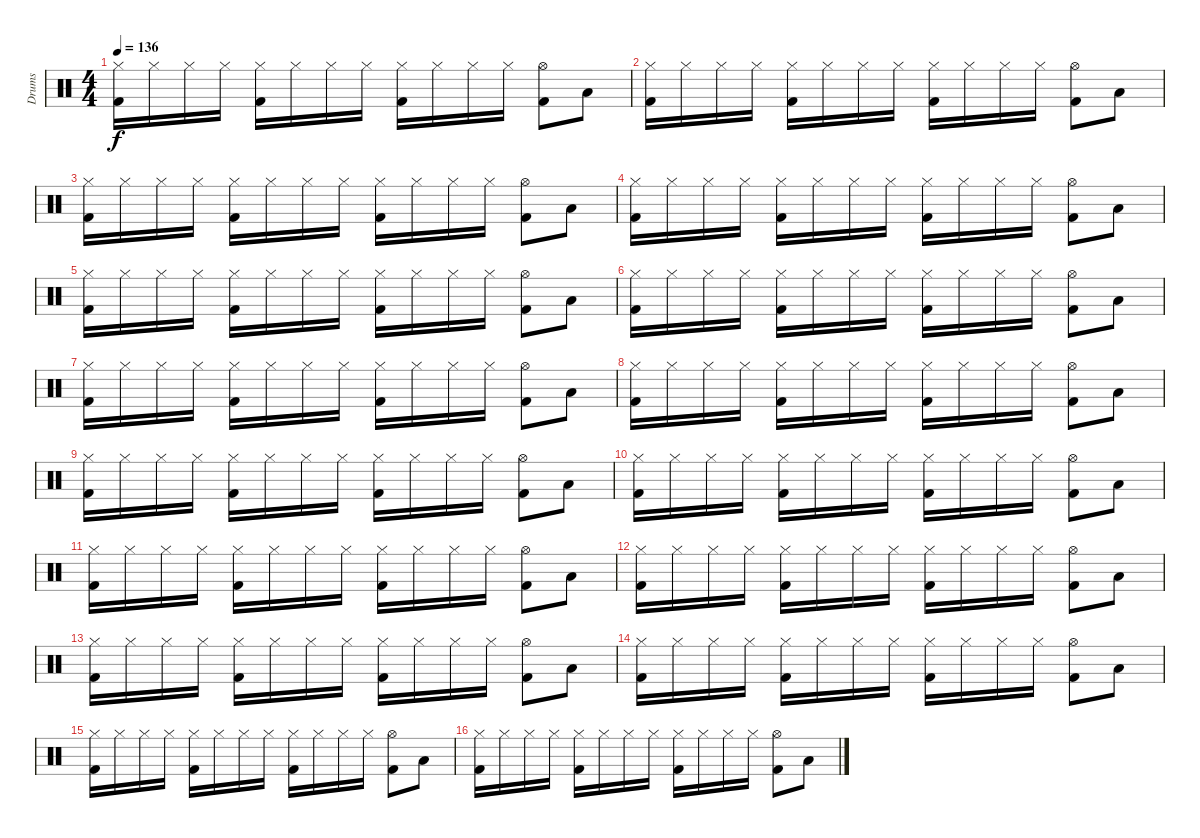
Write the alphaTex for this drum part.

\track ("Drums" "Drums") {instrument percussion}
\staff {score}
\articulation defaults
\ts (4 4)
\tempo 136
\clef neutral
\ks c
("Kick (hit) 2" "Hi-Hat (closed)").16{dy f} "Hi-Hat (closed)".16 "Hi-Hat (closed)".16 "Hi-Hat (closed)".16 ("Kick (hit) 2" "Hi-Hat (closed)").16 "Hi-Hat (closed)".16 "Hi-Hat (closed)".16 "Hi-Hat (closed)".16 ("Kick (hit) 2" "Hi-Hat (closed)").16 "Hi-Hat (closed)".16 "Hi-Hat (closed)".16 "Hi-Hat (closed)".16 ("Kick (hit) 2" "Hi-Hat (open)").8 "Low Tom (hit)".8 |
("Kick (hit) 2" "Hi-Hat (closed)").16 "Hi-Hat (closed)".16 "Hi-Hat (closed)".16 "Hi-Hat (closed)".16 ("Kick (hit) 2" "Hi-Hat (closed)").16 "Hi-Hat (closed)".16 "Hi-Hat (closed)".16 "Hi-Hat (closed)".16 ("Kick (hit) 2" "Hi-Hat (closed)").16 "Hi-Hat (closed)".16 "Hi-Hat (closed)".16 "Hi-Hat (closed)".16 ("Kick (hit) 2" "Hi-Hat (open)").8 "Low Tom (hit)".8 |
("Kick (hit) 2" "Hi-Hat (closed)").16 "Hi-Hat (closed)".16 "Hi-Hat (closed)".16 "Hi-Hat (closed)".16 ("Kick (hit) 2" "Hi-Hat (closed)").16 "Hi-Hat (closed)".16 "Hi-Hat (closed)".16 "Hi-Hat (closed)".16 ("Kick (hit) 2" "Hi-Hat (closed)").16 "Hi-Hat (closed)".16 "Hi-Hat (closed)".16 "Hi-Hat (closed)".16 ("Kick (hit) 2" "Hi-Hat (open)").8 "Low Tom (hit)".8 |
("Kick (hit) 2" "Hi-Hat (closed)").16 "Hi-Hat (closed)".16 "Hi-Hat (closed)".16 "Hi-Hat (closed)".16 ("Kick (hit) 2" "Hi-Hat (closed)").16 "Hi-Hat (closed)".16 "Hi-Hat (closed)".16 "Hi-Hat (closed)".16 ("Kick (hit) 2" "Hi-Hat (closed)").16 "Hi-Hat (closed)".16 "Hi-Hat (closed)".16 "Hi-Hat (closed)".16 ("Kick (hit) 2" "Hi-Hat (open)").8 "Low Tom (hit)".8 |
("Kick (hit) 2" "Hi-Hat (closed)").16 "Hi-Hat (closed)".16 "Hi-Hat (closed)".16 "Hi-Hat (closed)".16 ("Kick (hit) 2" "Hi-Hat (closed)").16 "Hi-Hat (closed)".16 "Hi-Hat (closed)".16 "Hi-Hat (closed)".16 ("Kick (hit) 2" "Hi-Hat (closed)").16 "Hi-Hat (closed)".16 "Hi-Hat (closed)".16 "Hi-Hat (closed)".16 ("Kick (hit) 2" "Hi-Hat (open)").8 "Low Tom (hit)".8 |
("Kick (hit) 2" "Hi-Hat (closed)").16 "Hi-Hat (closed)".16 "Hi-Hat (closed)".16 "Hi-Hat (closed)".16 ("Kick (hit) 2" "Hi-Hat (closed)").16 "Hi-Hat (closed)".16 "Hi-Hat (closed)".16 "Hi-Hat (closed)".16 ("Kick (hit) 2" "Hi-Hat (closed)").16 "Hi-Hat (closed)".16 "Hi-Hat (closed)".16 "Hi-Hat (closed)".16 ("Kick (hit) 2" "Hi-Hat (open)").8 "Low Tom (hit)".8 |
("Kick (hit) 2" "Hi-Hat (closed)").16 "Hi-Hat (closed)".16 "Hi-Hat (closed)".16 "Hi-Hat (closed)".16 ("Kick (hit) 2" "Hi-Hat (closed)").16 "Hi-Hat (closed)".16 "Hi-Hat (closed)".16 "Hi-Hat (closed)".16 ("Kick (hit) 2" "Hi-Hat (closed)").16 "Hi-Hat (closed)".16 "Hi-Hat (closed)".16 "Hi-Hat (closed)".16 ("Kick (hit) 2" "Hi-Hat (open)").8 "Low Tom (hit)".8 |
("Kick (hit) 2" "Hi-Hat (closed)").16 "Hi-Hat (closed)".16 "Hi-Hat (closed)".16 "Hi-Hat (closed)".16 ("Kick (hit) 2" "Hi-Hat (closed)").16 "Hi-Hat (closed)".16 "Hi-Hat (closed)".16 "Hi-Hat (closed)".16 ("Kick (hit) 2" "Hi-Hat (closed)").16 "Hi-Hat (closed)".16 "Hi-Hat (closed)".16 "Hi-Hat (closed)".16 ("Kick (hit) 2" "Hi-Hat (open)").8 "Low Tom (hit)".8 |
("Kick (hit) 2" "Hi-Hat (closed)").16 "Hi-Hat (closed)".16 "Hi-Hat (closed)".16 "Hi-Hat (closed)".16 ("Kick (hit) 2" "Hi-Hat (closed)").16 "Hi-Hat (closed)".16 "Hi-Hat (closed)".16 "Hi-Hat (closed)".16 ("Kick (hit) 2" "Hi-Hat (closed)").16 "Hi-Hat (closed)".16 "Hi-Hat (closed)".16 "Hi-Hat (closed)".16 ("Kick (hit) 2" "Hi-Hat (open)").8 "Low Tom (hit)".8 |
("Kick (hit) 2" "Hi-Hat (closed)").16 "Hi-Hat (closed)".16 "Hi-Hat (closed)".16 "Hi-Hat (closed)".16 ("Kick (hit) 2" "Hi-Hat (closed)").16 "Hi-Hat (closed)".16 "Hi-Hat (closed)".16 "Hi-Hat (closed)".16 ("Kick (hit) 2" "Hi-Hat (closed)").16 "Hi-Hat (closed)".16 "Hi-Hat (closed)".16 "Hi-Hat (closed)".16 ("Kick (hit) 2" "Hi-Hat (open)").8 "Low Tom (hit)".8 |
("Kick (hit) 2" "Hi-Hat (closed)").16 "Hi-Hat (closed)".16 "Hi-Hat (closed)".16 "Hi-Hat (closed)".16 ("Kick (hit) 2" "Hi-Hat (closed)").16 "Hi-Hat (closed)".16 "Hi-Hat (closed)".16 "Hi-Hat (closed)".16 ("Kick (hit) 2" "Hi-Hat (closed)").16 "Hi-Hat (closed)".16 "Hi-Hat (closed)".16 "Hi-Hat (closed)".16 ("Kick (hit) 2" "Hi-Hat (open)").8 "Low Tom (hit)".8 |
("Kick (hit) 2" "Hi-Hat (closed)").16 "Hi-Hat (closed)".16 "Hi-Hat (closed)".16 "Hi-Hat (closed)".16 ("Kick (hit) 2" "Hi-Hat (closed)").16 "Hi-Hat (closed)".16 "Hi-Hat (closed)".16 "Hi-Hat (closed)".16 ("Kick (hit) 2" "Hi-Hat (closed)").16 "Hi-Hat (closed)".16 "Hi-Hat (closed)".16 "Hi-Hat (closed)".16 ("Kick (hit) 2" "Hi-Hat (open)").8 "Low Tom (hit)".8 |
("Kick (hit) 2" "Hi-Hat (closed)").16 "Hi-Hat (closed)".16 "Hi-Hat (closed)".16 "Hi-Hat (closed)".16 ("Kick (hit) 2" "Hi-Hat (closed)").16 "Hi-Hat (closed)".16 "Hi-Hat (closed)".16 "Hi-Hat (closed)".16 ("Kick (hit) 2" "Hi-Hat (closed)").16 "Hi-Hat (closed)".16 "Hi-Hat (closed)".16 "Hi-Hat (closed)".16 ("Kick (hit) 2" "Hi-Hat (open)").8 "Low Tom (hit)".8 |
("Kick (hit) 2" "Hi-Hat (closed)").16 "Hi-Hat (closed)".16 "Hi-Hat (closed)".16 "Hi-Hat (closed)".16 ("Kick (hit) 2" "Hi-Hat (closed)").16 "Hi-Hat (closed)".16 "Hi-Hat (closed)".16 "Hi-Hat (closed)".16 ("Kick (hit) 2" "Hi-Hat (closed)").16 "Hi-Hat (closed)".16 "Hi-Hat (closed)".16 "Hi-Hat (closed)".16 ("Kick (hit) 2" "Hi-Hat (open)").8 "Low Tom (hit)".8 |
("Kick (hit) 2" "Hi-Hat (closed)").16 "Hi-Hat (closed)".16 "Hi-Hat (closed)".16 "Hi-Hat (closed)".16 ("Kick (hit) 2" "Hi-Hat (closed)").16 "Hi-Hat (closed)".16 "Hi-Hat (closed)".16 "Hi-Hat (closed)".16 ("Kick (hit) 2" "Hi-Hat (closed)").16 "Hi-Hat (closed)".16 "Hi-Hat (closed)".16 "Hi-Hat (closed)".16 ("Kick (hit) 2" "Hi-Hat (open)").8 "Low Tom (hit)".8 |
("Kick (hit) 2" "Hi-Hat (closed)").16 "Hi-Hat (closed)".16 "Hi-Hat (closed)".16 "Hi-Hat (closed)".16 ("Kick (hit) 2" "Hi-Hat (closed)").16 "Hi-Hat (closed)".16 "Hi-Hat (closed)".16 "Hi-Hat (closed)".16 ("Kick (hit) 2" "Hi-Hat (closed)").16 "Hi-Hat (closed)".16 "Hi-Hat (closed)".16 "Hi-Hat (closed)".16 ("Kick (hit) 2" "Hi-Hat (open)").8 "Low Tom (hit)".8
